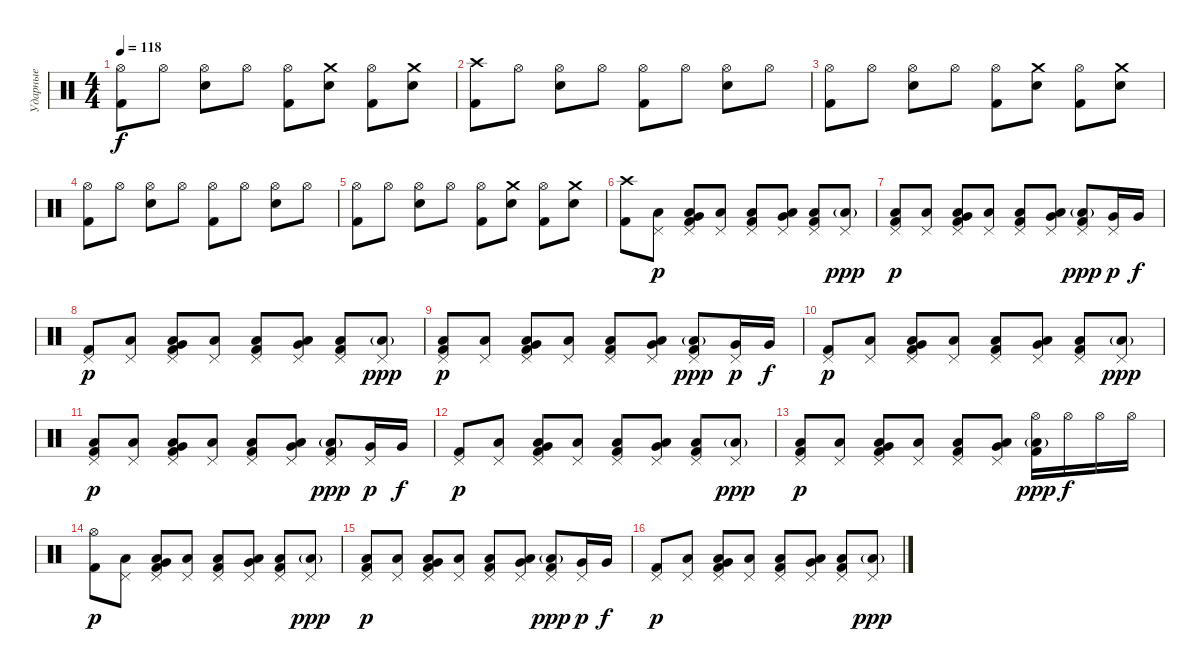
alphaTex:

\track ("Ударные" "Ударные") {instrument percussion}
\staff {score}
\articulation defaults
\ts (4 4)
\tempo 118
\clef neutral
\ks c
("Hi-Hat (open)" "Kick (hit) 2").8{dy f} "Hi-Hat (open)".8 ("Hi-Hat (open)" "Snare (hit) 2").8 "Hi-Hat (open)".8 ("Hi-Hat (open)" "Kick (hit) 2").8 ("Crash medium (hit)" "Snare (hit) 2").8 ("Hi-Hat (open)" "Kick (hit) 2").8 ("Crash medium (hit)" "Snare (hit) 2").8 |
("Crash high (hit)" "Kick (hit) 2").8 "Hi-Hat (open)".8 ("Hi-Hat (open)" "Snare (hit) 2").8 "Hi-Hat (open)".8 ("Hi-Hat (open)" "Kick (hit) 2").8 "Hi-Hat (open)".8 ("Hi-Hat (open)" "Snare (hit) 2").8 "Hi-Hat (open)".8 |
("Hi-Hat (open)" "Kick (hit) 2").8 "Hi-Hat (open)".8 ("Hi-Hat (open)" "Snare (hit) 2").8 "Hi-Hat (open)".8 ("Hi-Hat (open)" "Kick (hit) 2").8 ("Crash medium (hit)" "Snare (hit) 2").8 ("Hi-Hat (open)" "Kick (hit) 2").8 ("Crash medium (hit)" "Snare (hit) 2").8 |
("Hi-Hat (open)" "Kick (hit) 2").8 "Hi-Hat (open)".8 ("Hi-Hat (open)" "Snare (hit) 2").8 "Hi-Hat (open)".8 ("Hi-Hat (open)" "Kick (hit) 2").8 "Hi-Hat (open)".8 ("Hi-Hat (open)" "Snare (hit) 2").8 "Hi-Hat (open)".8 |
("Hi-Hat (open)" "Kick (hit) 2").8 "Hi-Hat (open)".8 ("Hi-Hat (open)" "Snare (hit) 2").8 "Hi-Hat (open)".8 ("Hi-Hat (open)" "Kick (hit) 2").8 ("Crash medium (hit)" "Snare (hit) 2").8 ("Hi-Hat (open)" "Kick (hit) 2").8 ("Crash medium (hit)" "Snare (hit) 2").8 |
("Crash high (hit)" "Kick (hit) 2").8 ("Pedal Hi-Hat (hit)" "Low Floor Tom (hit)").8{dy p} ("Pedal Hi-Hat (hit)" "Very Low Tom (hit)" "Low Floor Tom (hit)" "Kick (hit) 2").8 ("Pedal Hi-Hat (hit)" "Low Floor Tom (hit)").8 ("Pedal Hi-Hat (hit)" "Low Floor Tom (hit)" "Kick (hit) 2").8 ("Pedal Hi-Hat (hit)" "Very Low Tom (hit)" "Low Floor Tom (hit)").8 ("Pedal Hi-Hat (hit)" "Low Floor Tom (hit)" "Kick (hit) 2").8 ("Pedal Hi-Hat (hit)" "Low Floor Tom (hit)"{g}).8{dy ppp} |
("Pedal Hi-Hat (hit)" "Low Floor Tom (hit)" "Kick (hit) 2").8{dy p} ("Pedal Hi-Hat (hit)" "Low Floor Tom (hit)").8 ("Pedal Hi-Hat (hit)" "Very Low Tom (hit)" "Low Floor Tom (hit)" "Kick (hit) 2").8 ("Pedal Hi-Hat (hit)" "Low Floor Tom (hit)").8 ("Pedal Hi-Hat (hit)" "Low Floor Tom (hit)" "Kick (hit) 2").8 ("Pedal Hi-Hat (hit)" "Very Low Tom (hit)" "Low Floor Tom (hit)").8 ("Pedal Hi-Hat (hit)" "Low Floor Tom (hit)"{g} "Kick (hit) 2").8{dy ppp} ("Pedal Hi-Hat (hit)" "Very Low Tom (hit)").16{dy p} "Very Low Tom (hit)".16{dy f} |
("Pedal Hi-Hat (hit)" "Kick (hit) 2").8{dy p} ("Pedal Hi-Hat (hit)" "Low Floor Tom (hit)").8 ("Pedal Hi-Hat (hit)" "Very Low Tom (hit)" "Low Floor Tom (hit)" "Kick (hit) 2").8 ("Pedal Hi-Hat (hit)" "Low Floor Tom (hit)").8 ("Pedal Hi-Hat (hit)" "Low Floor Tom (hit)" "Kick (hit) 2").8 ("Pedal Hi-Hat (hit)" "Very Low Tom (hit)" "Low Floor Tom (hit)").8 ("Pedal Hi-Hat (hit)" "Low Floor Tom (hit)" "Kick (hit) 2").8 ("Pedal Hi-Hat (hit)" "Low Floor Tom (hit)"{g}).8{dy ppp} |
("Pedal Hi-Hat (hit)" "Low Floor Tom (hit)" "Kick (hit) 2").8{dy p} ("Pedal Hi-Hat (hit)" "Low Floor Tom (hit)").8 ("Pedal Hi-Hat (hit)" "Very Low Tom (hit)" "Low Floor Tom (hit)" "Kick (hit) 2").8 ("Pedal Hi-Hat (hit)" "Low Floor Tom (hit)").8 ("Pedal Hi-Hat (hit)" "Low Floor Tom (hit)" "Kick (hit) 2").8 ("Pedal Hi-Hat (hit)" "Very Low Tom (hit)" "Low Floor Tom (hit)").8 ("Pedal Hi-Hat (hit)" "Low Floor Tom (hit)"{g} "Kick (hit) 2").8{dy ppp} ("Pedal Hi-Hat (hit)" "Very Low Tom (hit)").16{dy p} "Very Low Tom (hit)".16{dy f} |
("Pedal Hi-Hat (hit)" "Kick (hit) 2").8{dy p} ("Pedal Hi-Hat (hit)" "Low Floor Tom (hit)").8 ("Pedal Hi-Hat (hit)" "Very Low Tom (hit)" "Low Floor Tom (hit)" "Kick (hit) 2").8 ("Pedal Hi-Hat (hit)" "Low Floor Tom (hit)").8 ("Pedal Hi-Hat (hit)" "Low Floor Tom (hit)" "Kick (hit) 2").8 ("Pedal Hi-Hat (hit)" "Very Low Tom (hit)" "Low Floor Tom (hit)").8 ("Pedal Hi-Hat (hit)" "Low Floor Tom (hit)" "Kick (hit) 2").8 ("Pedal Hi-Hat (hit)" "Low Floor Tom (hit)"{g}).8{dy ppp} |
("Pedal Hi-Hat (hit)" "Low Floor Tom (hit)" "Kick (hit) 2").8{dy p} ("Pedal Hi-Hat (hit)" "Low Floor Tom (hit)").8 ("Pedal Hi-Hat (hit)" "Very Low Tom (hit)" "Low Floor Tom (hit)" "Kick (hit) 2").8 ("Pedal Hi-Hat (hit)" "Low Floor Tom (hit)").8 ("Pedal Hi-Hat (hit)" "Low Floor Tom (hit)" "Kick (hit) 2").8 ("Pedal Hi-Hat (hit)" "Very Low Tom (hit)" "Low Floor Tom (hit)").8 ("Pedal Hi-Hat (hit)" "Low Floor Tom (hit)"{g} "Kick (hit) 2").8{dy ppp} ("Pedal Hi-Hat (hit)" "Very Low Tom (hit)").16{dy p} "Very Low Tom (hit)".16{dy f} |
("Pedal Hi-Hat (hit)" "Kick (hit) 2").8{dy p} ("Pedal Hi-Hat (hit)" "Low Floor Tom (hit)").8 ("Pedal Hi-Hat (hit)" "Very Low Tom (hit)" "Low Floor Tom (hit)" "Kick (hit) 2").8 ("Pedal Hi-Hat (hit)" "Low Floor Tom (hit)").8 ("Pedal Hi-Hat (hit)" "Low Floor Tom (hit)" "Kick (hit) 2").8 ("Pedal Hi-Hat (hit)" "Very Low Tom (hit)" "Low Floor Tom (hit)").8 ("Pedal Hi-Hat (hit)" "Low Floor Tom (hit)" "Kick (hit) 2").8 ("Pedal Hi-Hat (hit)" "Low Floor Tom (hit)"{g}).8{dy ppp} |
("Pedal Hi-Hat (hit)" "Low Floor Tom (hit)" "Kick (hit) 2").8{dy p} ("Pedal Hi-Hat (hit)" "Low Floor Tom (hit)").8 ("Pedal Hi-Hat (hit)" "Very Low Tom (hit)" "Low Floor Tom (hit)" "Kick (hit) 2").8 ("Pedal Hi-Hat (hit)" "Low Floor Tom (hit)").8 ("Pedal Hi-Hat (hit)" "Low Floor Tom (hit)" "Kick (hit) 2").8 ("Pedal Hi-Hat (hit)" "Very Low Tom (hit)" "Low Floor Tom (hit)").8 ("Hi-Hat (open)" "Low Floor Tom (hit)"{g} "Kick (hit) 2").16{dy ppp} "Hi-Hat (open)".16{dy f} "Hi-Hat (open)".16 "Hi-Hat (open)".16 |
("Hi-Hat (open)" "Kick (hit) 2").8{dy p} ("Pedal Hi-Hat (hit)" "Low Floor Tom (hit)").8 ("Pedal Hi-Hat (hit)" "Very Low Tom (hit)" "Low Floor Tom (hit)" "Kick (hit) 2").8 ("Pedal Hi-Hat (hit)" "Low Floor Tom (hit)").8 ("Pedal Hi-Hat (hit)" "Low Floor Tom (hit)" "Kick (hit) 2").8 ("Pedal Hi-Hat (hit)" "Very Low Tom (hit)" "Low Floor Tom (hit)").8 ("Pedal Hi-Hat (hit)" "Low Floor Tom (hit)" "Kick (hit) 2").8 ("Pedal Hi-Hat (hit)" "Low Floor Tom (hit)"{g}).8{dy ppp} |
("Pedal Hi-Hat (hit)" "Low Floor Tom (hit)" "Kick (hit) 2").8{dy p} ("Pedal Hi-Hat (hit)" "Low Floor Tom (hit)").8 ("Pedal Hi-Hat (hit)" "Very Low Tom (hit)" "Low Floor Tom (hit)" "Kick (hit) 2").8 ("Pedal Hi-Hat (hit)" "Low Floor Tom (hit)").8 ("Pedal Hi-Hat (hit)" "Low Floor Tom (hit)" "Kick (hit) 2").8 ("Pedal Hi-Hat (hit)" "Very Low Tom (hit)" "Low Floor Tom (hit)").8 ("Pedal Hi-Hat (hit)" "Low Floor Tom (hit)"{g} "Kick (hit) 2").8{dy ppp} ("Pedal Hi-Hat (hit)" "Very Low Tom (hit)").16{dy p} "Very Low Tom (hit)".16{dy f} |
("Pedal Hi-Hat (hit)" "Kick (hit) 2").8{dy p} ("Pedal Hi-Hat (hit)" "Low Floor Tom (hit)").8 ("Pedal Hi-Hat (hit)" "Very Low Tom (hit)" "Low Floor Tom (hit)" "Kick (hit) 2").8 ("Pedal Hi-Hat (hit)" "Low Floor Tom (hit)").8 ("Pedal Hi-Hat (hit)" "Low Floor Tom (hit)" "Kick (hit) 2").8 ("Pedal Hi-Hat (hit)" "Very Low Tom (hit)" "Low Floor Tom (hit)").8 ("Pedal Hi-Hat (hit)" "Low Floor Tom (hit)" "Kick (hit) 2").8 ("Pedal Hi-Hat (hit)" "Low Floor Tom (hit)"{g}).8{dy ppp}
